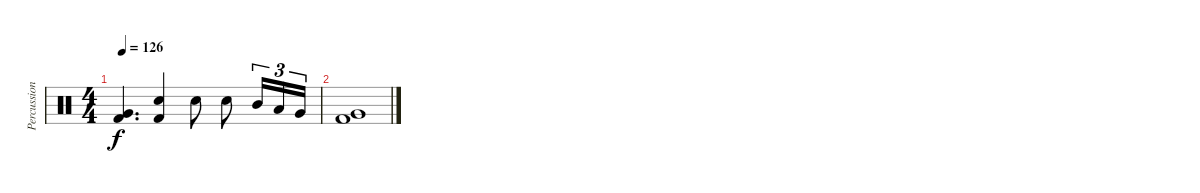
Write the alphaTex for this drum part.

\track ("Percussion" "Percussion") {instrument percussion}
\staff {score}
\articulation defaults
\ts (4 4)
\tempo 126
\clef neutral
\ks c
("Very Low Tom (hit)" "Kick (hit) 2").4{d dy f} ("Snare (hit) 2" "Kick (hit) 2").4 "Snare (hit) 2".8 "Snare (hit) 2".8 "Mid Tom (hit)".16{tu (3 2)} "Low Tom (hit)".16{tu (3 2)} "Very Low Tom (hit)".16{tu (3 2)} |
("Very Low Tom (hit)" "Kick (hit) 2").1
